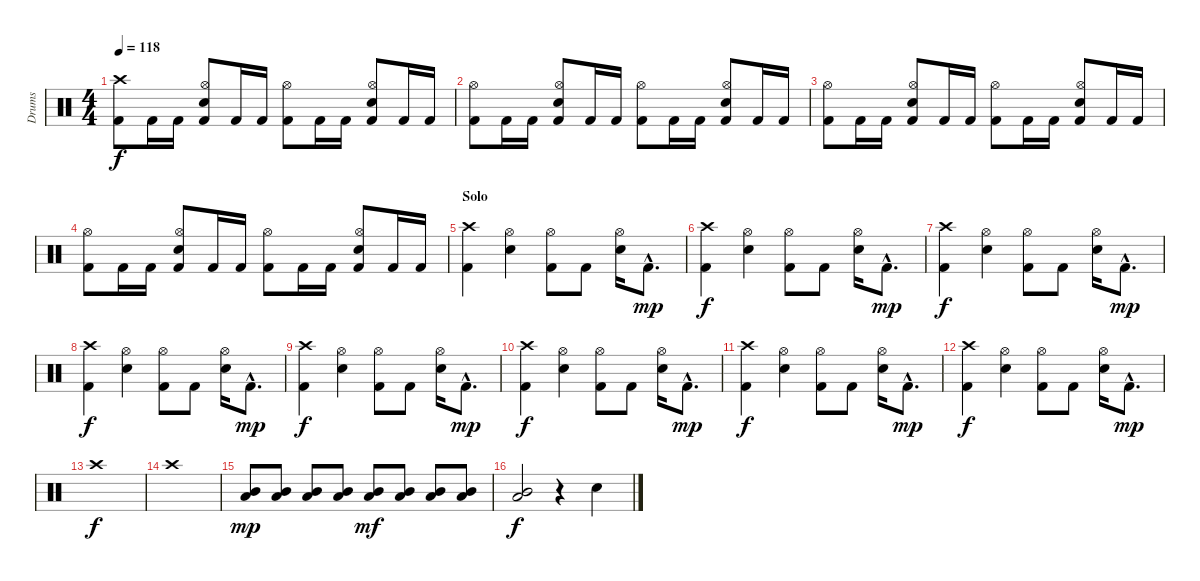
\track ("Drums" "Drums") {instrument percussion}
\staff {score}
\articulation defaults
\ts (4 4)
\tempo 118
\clef neutral
\ks c
("Crash high (hit)" "Kick (hit) 2").8{dy f} "Kick (hit) 2".16 "Kick (hit) 2".16 ("Hi-Hat (open)" "Snare (hit) 2" "Kick (hit) 2").8 "Kick (hit) 2".16 "Kick (hit) 2".16 ("Hi-Hat (open)" "Kick (hit) 2").8 "Kick (hit) 2".16 "Kick (hit) 2".16 ("Hi-Hat (open)" "Snare (hit) 2" "Kick (hit) 2").8 "Kick (hit) 2".16 "Kick (hit) 2".16 |
("Hi-Hat (open)" "Kick (hit) 2").8 "Kick (hit) 2".16 "Kick (hit) 2".16 ("Hi-Hat (open)" "Snare (hit) 2" "Kick (hit) 2").8 "Kick (hit) 2".16 "Kick (hit) 2".16 ("Hi-Hat (open)" "Kick (hit) 2").8 "Kick (hit) 2".16 "Kick (hit) 2".16 ("Hi-Hat (open)" "Snare (hit) 2" "Kick (hit) 2").8 "Kick (hit) 2".16 "Kick (hit) 2".16 |
("Hi-Hat (open)" "Kick (hit) 2").8 "Kick (hit) 2".16 "Kick (hit) 2".16 ("Hi-Hat (open)" "Snare (hit) 2" "Kick (hit) 2").8 "Kick (hit) 2".16 "Kick (hit) 2".16 ("Hi-Hat (open)" "Kick (hit) 2").8 "Kick (hit) 2".16 "Kick (hit) 2".16 ("Hi-Hat (open)" "Snare (hit) 2" "Kick (hit) 2").8 "Kick (hit) 2".16 "Kick (hit) 2".16 |
("Hi-Hat (open)" "Kick (hit) 2").8 "Kick (hit) 2".16 "Kick (hit) 2".16 ("Hi-Hat (open)" "Snare (hit) 2" "Kick (hit) 2").8 "Kick (hit) 2".16 "Kick (hit) 2".16 ("Hi-Hat (open)" "Kick (hit) 2").8 "Kick (hit) 2".16 "Kick (hit) 2".16 ("Hi-Hat (open)" "Snare (hit) 2" "Kick (hit) 2").8 "Kick (hit) 2".16 "Kick (hit) 2".16 |
\section ("" "Solo")
("Crash high (hit)" "Kick (hit) 2").4 ("Hi-Hat (open)" "Snare (hit) 2").4 ("Hi-Hat (open)" "Kick (hit) 2").8 "Kick (hit) 2".8 ("Hi-Hat (open)" "Snare (hit) 2").16 "Kick (hit) 2"{hac}.8{d dy mp} |
("Crash high (hit)" "Kick (hit) 2").4{dy f} ("Hi-Hat (open)" "Snare (hit) 2").4 ("Hi-Hat (open)" "Kick (hit) 2").8 "Kick (hit) 2".8 ("Hi-Hat (open)" "Snare (hit) 2").16 "Kick (hit) 2"{hac}.8{d dy mp} |
("Crash high (hit)" "Kick (hit) 2").4{dy f} ("Hi-Hat (open)" "Snare (hit) 2").4 ("Hi-Hat (open)" "Kick (hit) 2").8 "Kick (hit) 2".8 ("Hi-Hat (open)" "Snare (hit) 2").16 "Kick (hit) 2"{hac}.8{d dy mp} |
("Crash high (hit)" "Kick (hit) 2").4{dy f} ("Hi-Hat (open)" "Snare (hit) 2").4 ("Hi-Hat (open)" "Kick (hit) 2").8 "Kick (hit) 2".8 ("Hi-Hat (open)" "Snare (hit) 2").16 "Kick (hit) 2"{hac}.8{d dy mp} |
("Crash high (hit)" "Kick (hit) 2").4{dy f} ("Hi-Hat (open)" "Snare (hit) 2").4 ("Hi-Hat (open)" "Kick (hit) 2").8 "Kick (hit) 2".8 ("Hi-Hat (open)" "Snare (hit) 2").16 "Kick (hit) 2"{hac}.8{d dy mp} |
("Crash high (hit)" "Kick (hit) 2").4{dy f} ("Hi-Hat (open)" "Snare (hit) 2").4 ("Hi-Hat (open)" "Kick (hit) 2").8 "Kick (hit) 2".8 ("Hi-Hat (open)" "Snare (hit) 2").16 "Kick (hit) 2"{hac}.8{d dy mp} |
("Crash high (hit)" "Kick (hit) 2").4{dy f} ("Hi-Hat (open)" "Snare (hit) 2").4 ("Hi-Hat (open)" "Kick (hit) 2").8 "Kick (hit) 2".8 ("Hi-Hat (open)" "Snare (hit) 2").16 "Kick (hit) 2"{hac}.8{d dy mp} |
("Crash high (hit)" "Kick (hit) 2").4{dy f} ("Hi-Hat (open)" "Snare (hit) 2").4 ("Hi-Hat (open)" "Kick (hit) 2").8 "Kick (hit) 2".8 ("Hi-Hat (open)" "Snare (hit) 2").16 "Kick (hit) 2"{hac}.8{d dy mp} |
"Crash high (hit)".1{dy f} |
"Crash high (hit)".1 |
("Mid Tom (hit)" "Low Tom (hit)").8{dy mp} ("Mid Tom (hit)" "Low Tom (hit)").8 ("Mid Tom (hit)" "Low Tom (hit)").8 ("Mid Tom (hit)" "Low Tom (hit)").8 ("Mid Tom (hit)" "Low Tom (hit)").8{dy mf} ("Mid Tom (hit)" "Low Tom (hit)").8 ("Mid Tom (hit)" "Low Tom (hit)").8 ("Mid Tom (hit)" "Low Tom (hit)").8 |
("Mid Tom (hit)" "Low Tom (hit)").2{dy f} r.4 "Snare (hit) 2".4
